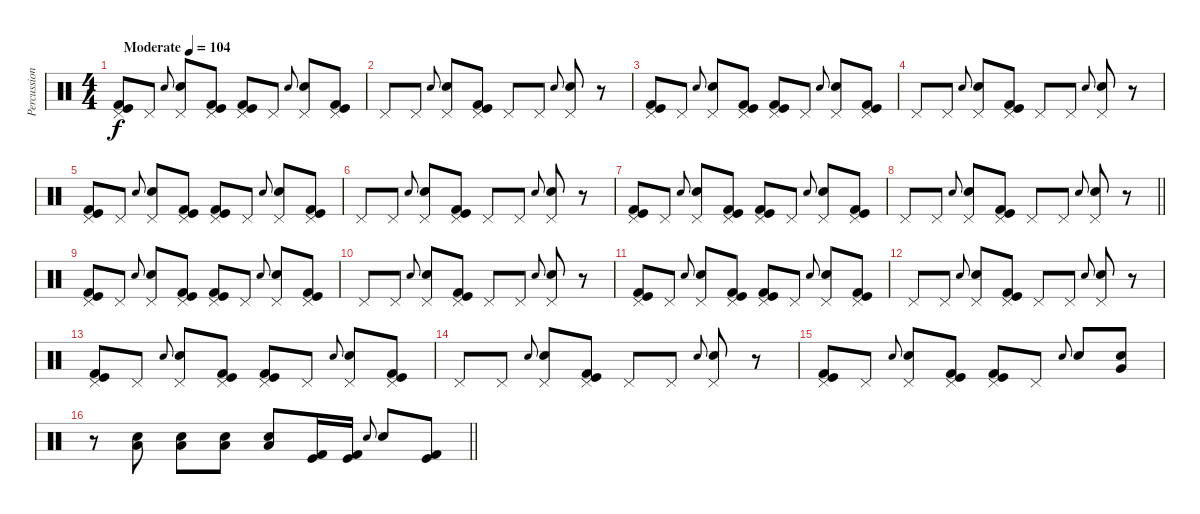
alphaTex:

\track ("Percussion" "Percussion") {instrument percussion}
\staff {score}
\articulation defaults
\ts (4 4)
\tempo (104 "Moderate")
\clef neutral
\ks c
("Pedal Hi-Hat (hit)" "Kick (hit)" "Kick (hit) 2").8{dy f} "Pedal Hi-Hat (hit)".8 "Electric Snare (hit)".8{gr onbeat} ("Pedal Hi-Hat (hit)" "Electric Snare (hit)").8 ("Pedal Hi-Hat (hit)" "Kick (hit)" "Kick (hit) 2").8 ("Pedal Hi-Hat (hit)" "Kick (hit)" "Kick (hit) 2").8 "Pedal Hi-Hat (hit)".8 "Electric Snare (hit)".8{gr onbeat} ("Pedal Hi-Hat (hit)" "Electric Snare (hit)").8 ("Pedal Hi-Hat (hit)" "Kick (hit)" "Kick (hit) 2").8 |
"Pedal Hi-Hat (hit)".8 "Pedal Hi-Hat (hit)".8 "Electric Snare (hit)".8{gr onbeat} ("Pedal Hi-Hat (hit)" "Electric Snare (hit)").8 ("Pedal Hi-Hat (hit)" "Kick (hit)" "Kick (hit) 2").8 "Pedal Hi-Hat (hit)".8 "Pedal Hi-Hat (hit)".8 "Electric Snare (hit)".8{gr onbeat} ("Pedal Hi-Hat (hit)" "Electric Snare (hit)").8 r.8 |
("Pedal Hi-Hat (hit)" "Kick (hit)" "Kick (hit) 2").8 "Pedal Hi-Hat (hit)".8 "Electric Snare (hit)".8{gr onbeat} ("Pedal Hi-Hat (hit)" "Electric Snare (hit)").8 ("Pedal Hi-Hat (hit)" "Kick (hit)" "Kick (hit) 2").8 ("Pedal Hi-Hat (hit)" "Kick (hit)" "Kick (hit) 2").8 "Pedal Hi-Hat (hit)".8 "Electric Snare (hit)".8{gr onbeat} ("Pedal Hi-Hat (hit)" "Electric Snare (hit)").8 ("Pedal Hi-Hat (hit)" "Kick (hit)" "Kick (hit) 2").8 |
"Pedal Hi-Hat (hit)".8 "Pedal Hi-Hat (hit)".8 "Electric Snare (hit)".8{gr onbeat} ("Pedal Hi-Hat (hit)" "Electric Snare (hit)").8 ("Pedal Hi-Hat (hit)" "Kick (hit)" "Kick (hit) 2").8 "Pedal Hi-Hat (hit)".8 "Pedal Hi-Hat (hit)".8 "Electric Snare (hit)".8{gr onbeat} ("Pedal Hi-Hat (hit)" "Electric Snare (hit)").8 r.8 |
("Pedal Hi-Hat (hit)" "Kick (hit)" "Kick (hit) 2").8 "Pedal Hi-Hat (hit)".8 "Electric Snare (hit)".8{gr onbeat} ("Pedal Hi-Hat (hit)" "Electric Snare (hit)").8 ("Pedal Hi-Hat (hit)" "Kick (hit)" "Kick (hit) 2").8 ("Pedal Hi-Hat (hit)" "Kick (hit)" "Kick (hit) 2").8 "Pedal Hi-Hat (hit)".8 "Electric Snare (hit)".8{gr onbeat} ("Pedal Hi-Hat (hit)" "Electric Snare (hit)").8 ("Pedal Hi-Hat (hit)" "Kick (hit)" "Kick (hit) 2").8 |
"Pedal Hi-Hat (hit)".8 "Pedal Hi-Hat (hit)".8 "Electric Snare (hit)".8{gr onbeat} ("Pedal Hi-Hat (hit)" "Electric Snare (hit)").8 ("Pedal Hi-Hat (hit)" "Kick (hit)" "Kick (hit) 2").8 "Pedal Hi-Hat (hit)".8 "Pedal Hi-Hat (hit)".8 "Electric Snare (hit)".8{gr onbeat} ("Pedal Hi-Hat (hit)" "Electric Snare (hit)").8 r.8 |
("Pedal Hi-Hat (hit)" "Kick (hit)" "Kick (hit) 2").8 "Pedal Hi-Hat (hit)".8 "Electric Snare (hit)".8{gr onbeat} ("Pedal Hi-Hat (hit)" "Electric Snare (hit)").8 ("Pedal Hi-Hat (hit)" "Kick (hit)" "Kick (hit) 2").8 ("Pedal Hi-Hat (hit)" "Kick (hit)" "Kick (hit) 2").8 "Pedal Hi-Hat (hit)".8 "Electric Snare (hit)".8{gr onbeat} ("Pedal Hi-Hat (hit)" "Electric Snare (hit)").8 ("Pedal Hi-Hat (hit)" "Kick (hit)" "Kick (hit) 2").8 |
\barLineRight lightlight "Pedal Hi-Hat (hit)".8 "Pedal Hi-Hat (hit)".8 "Electric Snare (hit)".8{gr onbeat}
("Pedal Hi-Hat (hit)" "Electric Snare (hit)").8 ("Pedal Hi-Hat (hit)" "Kick (hit)" "Kick (hit) 2").8 "Pedal Hi-Hat (hit)".8 "Pedal Hi-Hat (hit)".8 "Electric Snare (hit)".8{gr onbeat} ("Pedal Hi-Hat (hit)" "Electric Snare (hit)").8 r.8 |
\section ("" "")
("Pedal Hi-Hat (hit)" "Kick (hit)" "Kick (hit) 2").8 "Pedal Hi-Hat (hit)".8 "Electric Snare (hit)".8{gr onbeat} ("Pedal Hi-Hat (hit)" "Electric Snare (hit)").8 ("Pedal Hi-Hat (hit)" "Kick (hit)" "Kick (hit) 2").8 ("Pedal Hi-Hat (hit)" "Kick (hit)" "Kick (hit) 2").8 "Pedal Hi-Hat (hit)".8 "Electric Snare (hit)".8{gr onbeat} ("Pedal Hi-Hat (hit)" "Electric Snare (hit)").8 ("Pedal Hi-Hat (hit)" "Kick (hit)" "Kick (hit) 2").8 |
"Pedal Hi-Hat (hit)".8 "Pedal Hi-Hat (hit)".8 "Electric Snare (hit)".8{gr onbeat} ("Pedal Hi-Hat (hit)" "Electric Snare (hit)").8 ("Pedal Hi-Hat (hit)" "Kick (hit)" "Kick (hit) 2").8 "Pedal Hi-Hat (hit)".8 "Pedal Hi-Hat (hit)".8 "Electric Snare (hit)".8{gr onbeat} ("Pedal Hi-Hat (hit)" "Electric Snare (hit)").8 r.8 |
("Pedal Hi-Hat (hit)" "Kick (hit)" "Kick (hit) 2").8 "Pedal Hi-Hat (hit)".8 "Electric Snare (hit)".8{gr onbeat} ("Pedal Hi-Hat (hit)" "Electric Snare (hit)").8 ("Pedal Hi-Hat (hit)" "Kick (hit)" "Kick (hit) 2").8 ("Pedal Hi-Hat (hit)" "Kick (hit)" "Kick (hit) 2").8 "Pedal Hi-Hat (hit)".8 "Electric Snare (hit)".8{gr onbeat} ("Pedal Hi-Hat (hit)" "Electric Snare (hit)").8 ("Pedal Hi-Hat (hit)" "Kick (hit)" "Kick (hit) 2").8 |
"Pedal Hi-Hat (hit)".8 "Pedal Hi-Hat (hit)".8 "Electric Snare (hit)".8{gr onbeat} ("Pedal Hi-Hat (hit)" "Electric Snare (hit)").8 ("Pedal Hi-Hat (hit)" "Kick (hit)" "Kick (hit) 2").8 "Pedal Hi-Hat (hit)".8 "Pedal Hi-Hat (hit)".8 "Electric Snare (hit)".8{gr onbeat} ("Pedal Hi-Hat (hit)" "Electric Snare (hit)").8 r.8 |
("Pedal Hi-Hat (hit)" "Kick (hit)" "Kick (hit) 2").8 "Pedal Hi-Hat (hit)".8 "Electric Snare (hit)".8{gr onbeat} ("Pedal Hi-Hat (hit)" "Electric Snare (hit)").8 ("Pedal Hi-Hat (hit)" "Kick (hit)" "Kick (hit) 2").8 ("Pedal Hi-Hat (hit)" "Kick (hit)" "Kick (hit) 2").8 "Pedal Hi-Hat (hit)".8 "Electric Snare (hit)".8{gr onbeat} ("Pedal Hi-Hat (hit)" "Electric Snare (hit)").8 ("Pedal Hi-Hat (hit)" "Kick (hit)" "Kick (hit) 2").8 |
"Pedal Hi-Hat (hit)".8 "Pedal Hi-Hat (hit)".8 "Electric Snare (hit)".8{gr onbeat} ("Pedal Hi-Hat (hit)" "Electric Snare (hit)").8 ("Pedal Hi-Hat (hit)" "Kick (hit)" "Kick (hit) 2").8 "Pedal Hi-Hat (hit)".8 "Pedal Hi-Hat (hit)".8 "Electric Snare (hit)".8{gr onbeat} ("Pedal Hi-Hat (hit)" "Electric Snare (hit)").8 r.8 |
("Pedal Hi-Hat (hit)" "Kick (hit)" "Kick (hit) 2").8 "Pedal Hi-Hat (hit)".8 "Electric Snare (hit)".8{gr onbeat} ("Pedal Hi-Hat (hit)" "Electric Snare (hit)").8 ("Pedal Hi-Hat (hit)" "Kick (hit)" "Kick (hit) 2").8 ("Pedal Hi-Hat (hit)" "Kick (hit)" "Kick (hit) 2").8 "Pedal Hi-Hat (hit)".8 "Electric Snare (hit)".8{gr onbeat} "Electric Snare (hit)".8 ("Electric Snare (hit)" "Very Low Tom (hit)").8 |
\barLineRight lightlight
r.8 ("Electric Snare (hit)" "Low Floor Tom (hit)").8 ("Electric Snare (hit)" "Low Floor Tom (hit)").8 ("Electric Snare (hit)" "Low Floor Tom (hit)").8 ("Electric Snare (hit)" "Low Floor Tom (hit)").8 ("Kick (hit)" "Kick (hit) 2").16 ("Kick (hit)" "Kick (hit) 2").16 "Electric Snare (hit)".8{gr onbeat} "Electric Snare (hit)".8 ("Kick (hit)" "Kick (hit) 2").8
